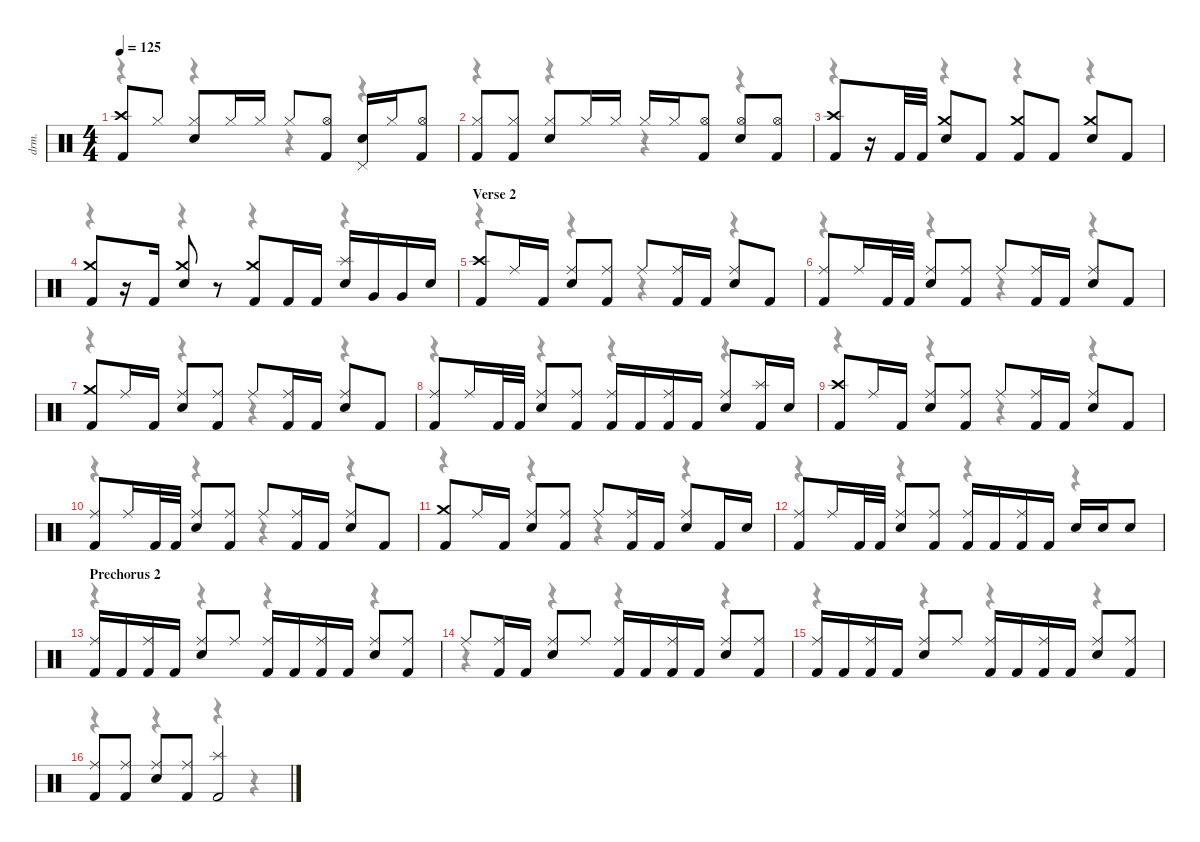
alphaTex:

\defaultSystemsLayout 4
\hideDynamics
\bracketExtendMode nobrackets
\otherSystemsTrackNameOrientation horizontal
\track ("Drums" "drm.") {instrument percussion}
\staff {score}
\articulation defaults
\voice
\ts (4 4)
\tempo 125
\clef neutral
\ks c
("Crash high (hit)" "Kick (hit) 2").8{dy f} "Hi-Hat (closed)".8 ("Hi-Hat (closed)" "Snare (hit) 2").8 "Hi-Hat (closed)".16 "Hi-Hat (closed)".16 "Hi-Hat (closed)".8 ("Hi-Hat (open)" "Kick (hit) 2").8 ("Pedal Hi-Hat (hit)" "Snare (hit) 2").16 "Hi-Hat (closed)".16 ("Hi-Hat (open)" "Kick (hit) 2").8 |
("Hi-Hat (closed)" "Kick (hit) 2").8 ("Hi-Hat (closed)" "Kick (hit) 2").8 ("Hi-Hat (closed)" "Snare (hit) 2").8 "Hi-Hat (closed)".16 "Hi-Hat (closed)".16 "Hi-Hat (closed)".16 "Hi-Hat (closed)".16 ("Hi-Hat (open)" "Kick (hit) 2").8 ("Hi-Hat (open)" "Snare (hit) 2").8 ("Hi-Hat (open)" "Kick (hit) 2").8 |
("Crash high (hit)" "Kick (hit) 2").8 r.16 "Kick (hit) 2".32 "Kick (hit) 2".32 ("Crash medium (hit)" "Snare (hit) 2").8 "Kick (hit) 2".8 ("Crash medium (hit)" "Kick (hit) 2").8 "Kick (hit) 2".8 ("Crash medium (hit)" "Snare (hit) 2").8 "Kick (hit) 2".8 |
("Crash medium (hit)" "Kick (hit) 2").8 r.16 "Kick (hit) 2".16 ("Crash medium (hit)" "Snare (hit) 2").8 r.8 ("Crash medium (hit)" "Kick (hit) 2").8 "Kick (hit) 2".16 "Kick (hit) 2".16 ("Splash (hit)" "Snare (hit) 2").16 "Very Low Tom (hit)".16 "Very Low Tom (hit)".16 "Snare (hit) 2".16 |
\section ("" "Verse 2")
("Crash high (hit)" "Kick (hit) 2").8 "Ride (middle)".16 "Kick (hit) 2".16{dy fff} ("Ride (middle)" "Snare (hit) 2").8{dy f} ("Ride (middle)" "Kick (hit) 2").8 "Ride (middle)".8 ("Ride (middle)" "Kick (hit) 2").16 "Kick (hit) 2".16{dy fff} ("Ride (middle)" "Snare (hit) 2").8{dy f} "Kick (hit) 2".8{dy fff} |
("Ride (middle)" "Kick (hit) 2").8{dy f} "Ride (middle)".16 "Kick (hit) 2".32{dy fff} "Kick (hit) 2".32 ("Ride (middle)" "Snare (hit) 2").8{dy f} ("Ride (middle)" "Kick (hit) 2").8 "Ride (middle)".8 ("Ride (middle)" "Kick (hit) 2").16 "Kick (hit) 2".16{dy fff} ("Ride (middle)" "Snare (hit) 2").8{dy f} "Kick (hit) 2".8{dy fff} |
("Crash medium (hit)" "Kick (hit) 2").8{dy f} "Ride (middle)".16 "Kick (hit) 2".16{dy fff} ("Ride (middle)" "Snare (hit) 2").8{dy f} ("Ride (middle)" "Kick (hit) 2").8 "Ride (middle)".8 ("Ride (middle)" "Kick (hit) 2").16 "Kick (hit) 2".16{dy fff} ("Ride (middle)" "Snare (hit) 2").8{dy f} "Kick (hit) 2".8{dy fff} |
("Ride (middle)" "Kick (hit) 2").8{dy f} "Ride (middle)".16 "Kick (hit) 2".32{dy fff} "Kick (hit) 2".32 ("Ride (middle)" "Snare (hit) 2").8{dy f} ("Ride (middle)" "Kick (hit) 2").8 ("Ride (middle)" "Kick (hit) 2").16 "Kick (hit) 2".16 ("Ride (middle)" "Kick (hit) 2").16 "Kick (hit) 2".16{dy fff} ("Ride (middle)" "Snare (hit) 2").8{dy f} ("Splash (hit)" "Kick (hit) 2").16 "Snare (hit) 2".16 |
("Crash high (hit)" "Kick (hit) 2").8 "Ride (middle)".16 "Kick (hit) 2".16{dy fff} ("Ride (middle)" "Snare (hit) 2").8{dy f} ("Ride (middle)" "Kick (hit) 2").8 "Ride (middle)".8 ("Ride (middle)" "Kick (hit) 2").16 "Kick (hit) 2".16{dy fff} ("Ride (middle)" "Snare (hit) 2").8{dy f} "Kick (hit) 2".8{dy fff} |
("Ride (middle)" "Kick (hit) 2").8{dy f} "Ride (middle)".16 "Kick (hit) 2".32{dy fff} "Kick (hit) 2".32 ("Ride (middle)" "Snare (hit) 2").8{dy f} ("Ride (middle)" "Kick (hit) 2").8 "Ride (middle)".8 ("Ride (middle)" "Kick (hit) 2").16 "Kick (hit) 2".16{dy fff} ("Ride (middle)" "Snare (hit) 2").8{dy f} "Kick (hit) 2".8{dy fff} |
("Crash medium (hit)" "Kick (hit) 2").8{dy f} "Ride (middle)".16 "Kick (hit) 2".16{dy fff} ("Ride (middle)" "Snare (hit) 2").8{dy f} ("Ride (middle)" "Kick (hit) 2").8 "Ride (middle)".8 ("Ride (middle)" "Kick (hit) 2").16 "Kick (hit) 2".16{dy fff} ("Ride (middle)" "Snare (hit) 2").8{dy f} "Kick (hit) 2".16{dy fff} "Snare (hit) 2".16{dy f} |
("Ride (middle)" "Kick (hit) 2").8 "Ride (middle)".16 "Kick (hit) 2".32{dy fff} "Kick (hit) 2".32 ("Ride (middle)" "Snare (hit) 2").8{dy f} ("Ride (middle)" "Kick (hit) 2").8 ("Ride (middle)" "Kick (hit) 2").16 "Kick (hit) 2".16 ("Ride (middle)" "Kick (hit) 2").16 "Kick (hit) 2".16{dy fff} "Snare (hit) 2".16 "Snare (hit) 2".16 "Snare (hit) 2".8 |
\section ("" "Prechorus 2")
("Ride (middle)" "Kick (hit) 2").16{dy f} "Kick (hit) 2".16{dy fff} ("Ride (middle)" "Kick (hit) 2").16{dy f} "Kick (hit) 2".16{dy fff} ("Ride (middle)" "Snare (hit) 2").8{dy f} "Ride (middle)".8 ("Ride (middle)" "Kick (hit) 2").16 "Kick (hit) 2".16{dy fff} ("Ride (middle)" "Kick (hit) 2").16{dy f} "Kick (hit) 2".16{dy fff} ("Ride (middle)" "Snare (hit) 2").8{dy f} ("Ride (middle)" "Kick (hit) 2").8 |
"Ride (middle)".8 ("Ride (middle)" "Kick (hit) 2").16 "Kick (hit) 2".16{dy fff} ("Ride (middle)" "Snare (hit) 2").8{dy f} "Ride (middle)".8 ("Ride (middle)" "Kick (hit) 2").16 "Kick (hit) 2".16{dy fff} ("Ride (middle)" "Kick (hit) 2").16{dy f} "Kick (hit) 2".16{dy fff} ("Ride (middle)" "Snare (hit) 2").8{dy f} ("Ride (middle)" "Kick (hit) 2").8 |
("Ride (middle)" "Kick (hit) 2").16 "Kick (hit) 2".16{dy fff} ("Ride (middle)" "Kick (hit) 2").16{dy f} "Kick (hit) 2".16{dy fff} ("Ride (middle)" "Snare (hit) 2").8{dy f} "Ride (middle)".8 ("Ride (middle)" "Kick (hit) 2").16 "Kick (hit) 2".16{dy fff} ("Ride (middle)" "Kick (hit) 2").16{dy f} "Kick (hit) 2".16{dy fff} ("Ride (middle)" "Snare (hit) 2").8{dy f} ("Ride (middle)" "Kick (hit) 2").8 |
("Ride (middle)" "Kick (hit) 2").8 ("Ride (middle)" "Kick (hit) 2").8 ("Ride (middle)" "Snare (hit) 2").8 ("Ride (middle)" "Kick (hit) 2").8 ("Splash (hit)" "Kick (hit) 2").2
\voice
\clef neutral
\ottava regular
\simile none
\ks c
r.4{dy mf} r.4 r.4 r.4 |
r.4 r.4 r.4 r.4 |
r.4 r.4 r.4 r.4 |
r.4 r.4 r.4 r.4 |
r.4 r.4 r.4 r.4 |
r.4 r.4 r.4 r.4 |
r.4 r.4 r.4 r.4 |
r.4 r.4 r.4 r.4 |
r.4 r.4 r.4 r.4 |
r.4 r.4 r.4 r.4 |
r.4 r.4 r.4 r.4 |
r.4 r.4 r.4 r.4 |
r.4 r.4 r.4 r.4 |
r.4 r.4 r.4 r.4 |
r.4 r.4 r.4 r.4 |
r.4 r.4 r.4 r.4
